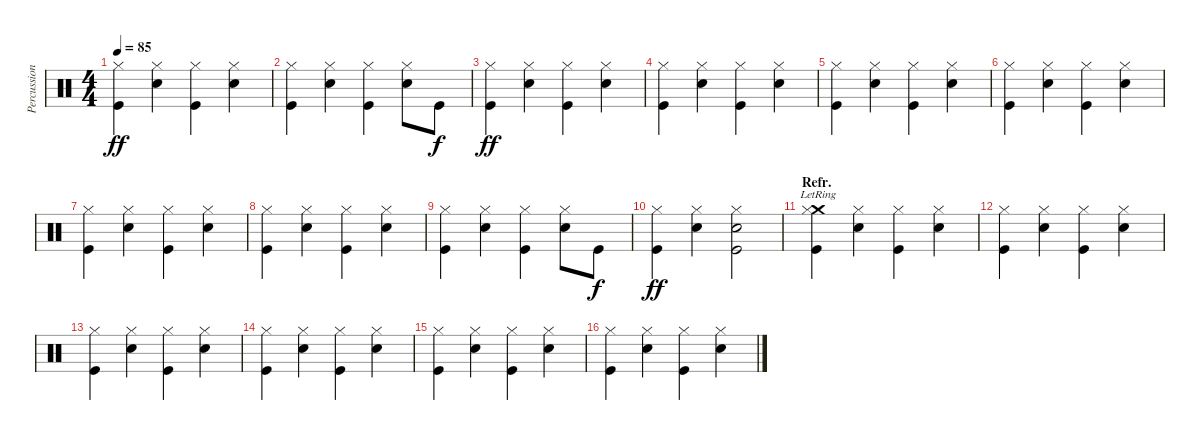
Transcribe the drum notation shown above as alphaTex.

\track ("Percussion" "Percussion") {instrument percussion}
\staff {score}
\articulation defaults
\ts (4 4)
\tempo 85
\clef neutral
\ks c
("Hi-Hat (closed)" "Kick (hit)").4{dy ff} ("Hi-Hat (closed)" "Snare (hit) 2").4 ("Hi-Hat (closed)" "Kick (hit)").4 ("Hi-Hat (closed)" "Snare (hit) 2").4 |
("Hi-Hat (closed)" "Kick (hit)").4 ("Hi-Hat (closed)" "Snare (hit) 2").4 ("Hi-Hat (closed)" "Kick (hit)").4 ("Hi-Hat (closed)" "Snare (hit) 2").8 "Kick (hit)".8{dy f} |
("Hi-Hat (closed)" "Kick (hit)").4{dy ff} ("Hi-Hat (closed)" "Snare (hit) 2").4 ("Hi-Hat (closed)" "Kick (hit)").4 ("Hi-Hat (closed)" "Snare (hit) 2").4 |
("Hi-Hat (closed)" "Kick (hit)").4 ("Hi-Hat (closed)" "Snare (hit) 2").4 ("Hi-Hat (closed)" "Kick (hit)").4 ("Hi-Hat (closed)" "Snare (hit) 2").4 |
("Hi-Hat (closed)" "Kick (hit)").4 ("Hi-Hat (closed)" "Snare (hit) 2").4 ("Hi-Hat (closed)" "Kick (hit)").4 ("Hi-Hat (closed)" "Snare (hit) 2").4 |
("Hi-Hat (closed)" "Kick (hit)").4 ("Hi-Hat (closed)" "Snare (hit) 2").4 ("Hi-Hat (closed)" "Kick (hit)").4 ("Hi-Hat (closed)" "Snare (hit) 2").4 |
("Hi-Hat (closed)" "Kick (hit)").4 ("Hi-Hat (closed)" "Snare (hit) 2").4 ("Hi-Hat (closed)" "Kick (hit)").4 ("Hi-Hat (closed)" "Snare (hit) 2").4 |
("Hi-Hat (closed)" "Kick (hit)").4 ("Hi-Hat (closed)" "Snare (hit) 2").4 ("Hi-Hat (closed)" "Kick (hit)").4 ("Hi-Hat (closed)" "Snare (hit) 2").4 |
("Hi-Hat (closed)" "Kick (hit)").4 ("Hi-Hat (closed)" "Snare (hit) 2").4 ("Hi-Hat (closed)" "Kick (hit)").4 ("Hi-Hat (closed)" "Snare (hit) 2").8 "Kick (hit)".8{dy f} |
("Hi-Hat (closed)" "Kick (hit)").4{dy ff} ("Hi-Hat (closed)" "Snare (hit) 2").4 ("Hi-Hat (closed)" "Snare (hit) 2" "Kick (hit)").2 |
\section ("" "Refr.")
("Crash medium (hit)"{lr} "Hi-Hat (closed)" "Kick (hit)").4 ("Hi-Hat (closed)" "Snare (hit) 2").4 ("Hi-Hat (closed)" "Kick (hit)").4 ("Hi-Hat (closed)" "Snare (hit) 2").4 |
("Hi-Hat (closed)" "Kick (hit)").4 ("Hi-Hat (closed)" "Snare (hit) 2").4 ("Hi-Hat (closed)" "Kick (hit)").4 ("Hi-Hat (closed)" "Snare (hit) 2").4 |
("Hi-Hat (closed)" "Kick (hit)").4 ("Hi-Hat (closed)" "Snare (hit) 2").4 ("Hi-Hat (closed)" "Kick (hit)").4 ("Hi-Hat (closed)" "Snare (hit) 2").4 |
("Hi-Hat (closed)" "Kick (hit)").4 ("Hi-Hat (closed)" "Snare (hit) 2").4 ("Hi-Hat (closed)" "Kick (hit)").4 ("Hi-Hat (closed)" "Snare (hit) 2").4 |
("Hi-Hat (closed)" "Kick (hit)").4 ("Hi-Hat (closed)" "Snare (hit) 2").4 ("Hi-Hat (closed)" "Kick (hit)").4 ("Hi-Hat (closed)" "Snare (hit) 2").4 |
("Hi-Hat (closed)" "Kick (hit)").4 ("Hi-Hat (closed)" "Snare (hit) 2").4 ("Hi-Hat (closed)" "Kick (hit)").4 ("Hi-Hat (closed)" "Snare (hit) 2").4
